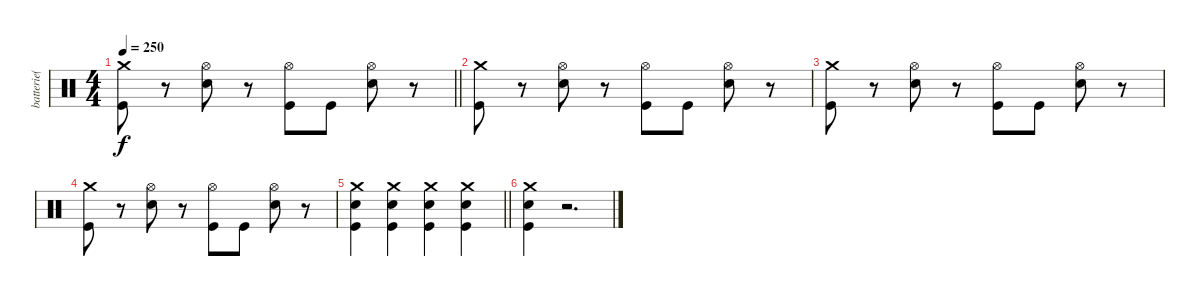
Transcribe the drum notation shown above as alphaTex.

\track ("batterie( Yureesh )" "batterie( ") {instrument percussion}
\staff {score}
\articulation defaults
\ts (4 4)
\tempo 250
\clef neutral
\barLineRight lightlight
\ks c
("Crash medium (hit)" "Kick (hit)").8{dy f} r.8 ("Hi-Hat (open)" "Snare (hit) 2").8 r.8 ("Hi-Hat (open)" "Kick (hit)").8 "Kick (hit)".8 ("Hi-Hat (open)" "Snare (hit) 2").8 r.8 |
("Crash medium (hit)" "Kick (hit)").8 r.8 ("Hi-Hat (open)" "Snare (hit) 2").8 r.8 ("Hi-Hat (open)" "Kick (hit)").8 "Kick (hit)".8 ("Hi-Hat (open)" "Snare (hit) 2").8 r.8 |
("Crash medium (hit)" "Kick (hit)").8 r.8 ("Hi-Hat (open)" "Snare (hit) 2").8 r.8 ("Hi-Hat (open)" "Kick (hit)").8 "Kick (hit)".8 ("Hi-Hat (open)" "Snare (hit) 2").8 r.8 |
("Crash medium (hit)" "Kick (hit)").8 r.8 ("Hi-Hat (open)" "Snare (hit) 2").8 r.8 ("Hi-Hat (open)" "Kick (hit)").8 "Kick (hit)".8 ("Hi-Hat (open)" "Snare (hit) 2").8 r.8 |
\barLineRight lightlight
("Crash medium (hit)" "Snare (hit) 2" "Kick (hit)").4 ("Crash medium (hit)" "Snare (hit) 2" "Kick (hit)").4 ("Crash medium (hit)" "Snare (hit) 2" "Kick (hit)").4 ("Crash medium (hit)" "Snare (hit) 2" "Kick (hit)").4 |
("Crash medium (hit)" "Snare (hit) 2" "Kick (hit)").4 r.2{d}
